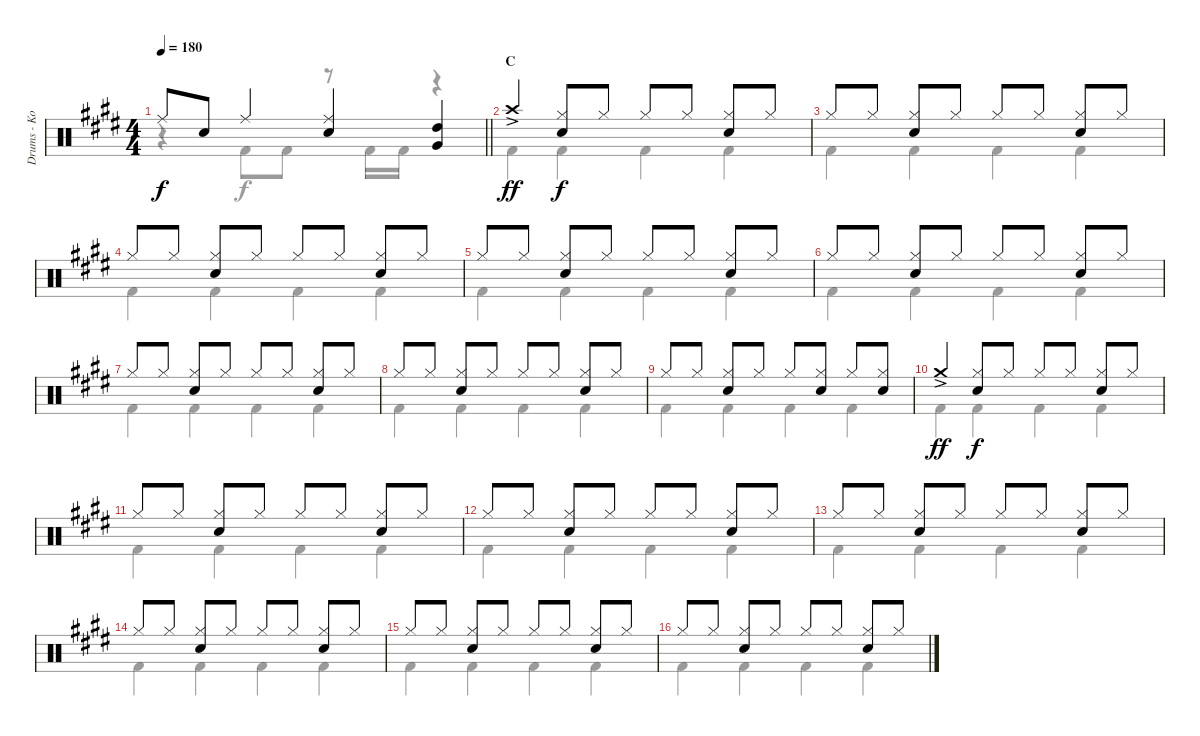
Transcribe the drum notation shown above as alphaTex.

\track ("Drums - Ko-Ki" "Drums - Ko") {instrument percussion}
\staff {score}
\articulation defaults
\voice
\ts (4 4)
\tempo 180
\clef neutral
\barLineRight lightlight
\ks e "Ride (middle)".8{dy f} "Snare (hit) 2".8 "Ride (middle)".4
("Ride (middle)" "Snare (hit) 2").4 ("High Tom (hit)" "Very Low Tom (hit)").4 |
\section ("" "C")
"Crash high (hit)"{ac}.4{dy ff} ("Hi-Hat (closed)" "Snare (hit) 2").8{dy f} "Hi-Hat (closed)".8 "Hi-Hat (closed)".8 "Hi-Hat (closed)".8 ("Hi-Hat (closed)" "Snare (hit) 2").8 "Hi-Hat (closed)".8 |
"Hi-Hat (closed)".8 "Hi-Hat (closed)".8 ("Hi-Hat (closed)" "Snare (hit) 2").8 "Hi-Hat (closed)".8 "Hi-Hat (closed)".8 "Hi-Hat (closed)".8 ("Hi-Hat (closed)" "Snare (hit) 2").8 "Hi-Hat (closed)".8 |
"Hi-Hat (closed)".8 "Hi-Hat (closed)".8 ("Hi-Hat (closed)" "Snare (hit) 2").8 "Hi-Hat (closed)".8 "Hi-Hat (closed)".8 "Hi-Hat (closed)".8 ("Hi-Hat (closed)" "Snare (hit) 2").8 "Hi-Hat (closed)".8 |
"Hi-Hat (closed)".8 "Hi-Hat (closed)".8 ("Hi-Hat (closed)" "Snare (hit) 2").8 "Hi-Hat (closed)".8 "Hi-Hat (closed)".8 "Hi-Hat (closed)".8 ("Hi-Hat (closed)" "Snare (hit) 2").8 "Hi-Hat (closed)".8 |
"Hi-Hat (closed)".8 "Hi-Hat (closed)".8 ("Hi-Hat (closed)" "Snare (hit) 2").8 "Hi-Hat (closed)".8 "Hi-Hat (closed)".8 "Hi-Hat (closed)".8 ("Hi-Hat (closed)" "Snare (hit) 2").8 "Hi-Hat (closed)".8 |
"Hi-Hat (closed)".8 "Hi-Hat (closed)".8 ("Hi-Hat (closed)" "Snare (hit) 2").8 "Hi-Hat (closed)".8 "Hi-Hat (closed)".8 "Hi-Hat (closed)".8 ("Hi-Hat (closed)" "Snare (hit) 2").8 "Hi-Hat (closed)".8 |
"Hi-Hat (closed)".8 "Hi-Hat (closed)".8 ("Hi-Hat (closed)" "Snare (hit) 2").8 "Hi-Hat (closed)".8 "Hi-Hat (closed)".8 "Hi-Hat (closed)".8 ("Hi-Hat (closed)" "Snare (hit) 2").8 "Hi-Hat (closed)".8 |
"Hi-Hat (closed)".8 "Hi-Hat (closed)".8 ("Hi-Hat (closed)" "Snare (hit) 2").8 "Hi-Hat (closed)".8 "Hi-Hat (closed)".8 ("Hi-Hat (closed)" "Snare (hit) 2").8 "Hi-Hat (closed)".8 ("Hi-Hat (closed)" "Snare (hit) 2").8 |
"Crash medium (hit)"{ac}.4{dy ff} ("Hi-Hat (closed)" "Snare (hit) 2").8{dy f} "Hi-Hat (closed)".8 "Hi-Hat (closed)".8 "Hi-Hat (closed)".8 ("Hi-Hat (closed)" "Snare (hit) 2").8 "Hi-Hat (closed)".8 |
"Hi-Hat (closed)".8 "Hi-Hat (closed)".8 ("Hi-Hat (closed)" "Snare (hit) 2").8 "Hi-Hat (closed)".8 "Hi-Hat (closed)".8 "Hi-Hat (closed)".8 ("Hi-Hat (closed)" "Snare (hit) 2").8 "Hi-Hat (closed)".8 |
"Hi-Hat (closed)".8 "Hi-Hat (closed)".8 ("Hi-Hat (closed)" "Snare (hit) 2").8 "Hi-Hat (closed)".8 "Hi-Hat (closed)".8 "Hi-Hat (closed)".8 ("Hi-Hat (closed)" "Snare (hit) 2").8 "Hi-Hat (closed)".8 |
"Hi-Hat (closed)".8 "Hi-Hat (closed)".8 ("Hi-Hat (closed)" "Snare (hit) 2").8 "Hi-Hat (closed)".8 "Hi-Hat (closed)".8 "Hi-Hat (closed)".8 ("Hi-Hat (closed)" "Snare (hit) 2").8 "Hi-Hat (closed)".8 |
"Hi-Hat (closed)".8 "Hi-Hat (closed)".8 ("Hi-Hat (closed)" "Snare (hit) 2").8 "Hi-Hat (closed)".8 "Hi-Hat (closed)".8 "Hi-Hat (closed)".8 ("Hi-Hat (closed)" "Snare (hit) 2").8 "Hi-Hat (closed)".8 |
"Hi-Hat (closed)".8 "Hi-Hat (closed)".8 ("Hi-Hat (closed)" "Snare (hit) 2").8 "Hi-Hat (closed)".8 "Hi-Hat (closed)".8 "Hi-Hat (closed)".8 ("Hi-Hat (closed)" "Snare (hit) 2").8 "Hi-Hat (closed)".8 |
"Hi-Hat (closed)".8 "Hi-Hat (closed)".8 ("Hi-Hat (closed)" "Snare (hit) 2").8 "Hi-Hat (closed)".8 "Hi-Hat (closed)".8 "Hi-Hat (closed)".8 ("Hi-Hat (closed)" "Snare (hit) 2").8 "Hi-Hat (closed)".8
\voice
\clef neutral
\ottava regular
\simile none
\barLineRight lightlight
\ks e
r.4{dy f} "Kick (hit) 2".8 "Kick (hit) 2".8 r.8 "Kick (hit) 2".16 "Kick (hit) 2".16 r.4 |
"Kick (hit) 2".4 "Kick (hit) 2".4 "Kick (hit) 2".4 "Kick (hit) 2".4 |
"Kick (hit) 2".4 "Kick (hit) 2".4 "Kick (hit) 2".4 "Kick (hit) 2".4 |
"Kick (hit) 2".4 "Kick (hit) 2".4 "Kick (hit) 2".4 "Kick (hit) 2".4 |
"Kick (hit) 2".4 "Kick (hit) 2".4 "Kick (hit) 2".4 "Kick (hit) 2".4 |
"Kick (hit) 2".4 "Kick (hit) 2".4 "Kick (hit) 2".4 "Kick (hit) 2".4 |
"Kick (hit) 2".4 "Kick (hit) 2".4 "Kick (hit) 2".4 "Kick (hit) 2".4 |
"Kick (hit) 2".4 "Kick (hit) 2".4 "Kick (hit) 2".4 "Kick (hit) 2".4 |
"Kick (hit) 2".4 "Kick (hit) 2".4 "Kick (hit) 2".4 "Kick (hit) 2".4 |
"Kick (hit) 2".4 "Kick (hit) 2".4 "Kick (hit) 2".4 "Kick (hit) 2".4 |
"Kick (hit) 2".4 "Kick (hit) 2".4 "Kick (hit) 2".4 "Kick (hit) 2".4 |
"Kick (hit) 2".4 "Kick (hit) 2".4 "Kick (hit) 2".4 "Kick (hit) 2".4 |
"Kick (hit) 2".4 "Kick (hit) 2".4 "Kick (hit) 2".4 "Kick (hit) 2".4 |
"Kick (hit) 2".4 "Kick (hit) 2".4 "Kick (hit) 2".4 "Kick (hit) 2".4 |
"Kick (hit) 2".4 "Kick (hit) 2".4 "Kick (hit) 2".4 "Kick (hit) 2".4 |
"Kick (hit) 2".4 "Kick (hit) 2".4 "Kick (hit) 2".4 "Kick (hit) 2".4
